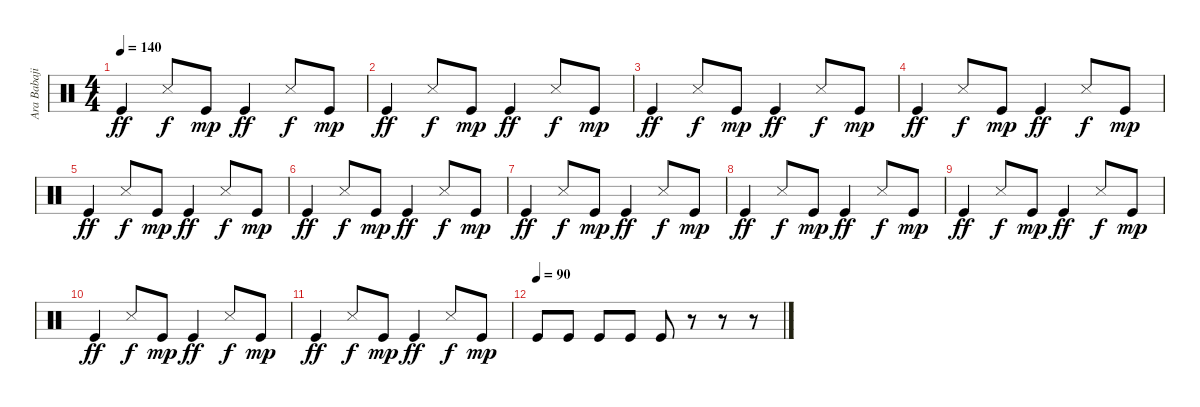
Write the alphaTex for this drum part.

\track ("Ara Babajian Drums" "Ara Babaji") {instrument percussion}
\staff {score}
\articulation defaults
\ts (4 4)
\tempo 140
\clef neutral
\ks c "Kick (hit)".4{dy ff} "Snare (side stick) 3".8{dy f} "Kick (hit)".8{dy mp} "Kick (hit)".4{dy ff} "Snare (side stick) 3".8{dy f} "Kick (hit)".8{dy mp}
|
"Kick (hit)".4{dy ff} "Snare (side stick) 3".8{dy f} "Kick (hit)".8{dy mp} "Kick (hit)".4{dy ff} "Snare (side stick) 3".8{dy f} "Kick (hit)".8{dy mp} |
"Kick (hit)".4{dy ff} "Snare (side stick) 3".8{dy f} "Kick (hit)".8{dy mp} "Kick (hit)".4{dy ff} "Snare (side stick) 3".8{dy f} "Kick (hit)".8{dy mp} |
"Kick (hit)".4{dy ff} "Snare (side stick) 3".8{dy f} "Kick (hit)".8{dy mp} "Kick (hit)".4{dy ff} "Snare (side stick) 3".8{dy f} "Kick (hit)".8{dy mp} |
"Kick (hit)".4{dy ff} "Snare (side stick) 3".8{dy f} "Kick (hit)".8{dy mp} "Kick (hit)".4{dy ff} "Snare (side stick) 3".8{dy f} "Kick (hit)".8{dy mp} |
"Kick (hit)".4{dy ff} "Snare (side stick) 3".8{dy f} "Kick (hit)".8{dy mp} "Kick (hit)".4{dy ff} "Snare (side stick) 3".8{dy f} "Kick (hit)".8{dy mp} |
"Kick (hit)".4{dy ff} "Snare (side stick) 3".8{dy f} "Kick (hit)".8{dy mp} "Kick (hit)".4{dy ff} "Snare (side stick) 3".8{dy f} "Kick (hit)".8{dy mp} |
"Kick (hit)".4{dy ff} "Snare (side stick) 3".8{dy f} "Kick (hit)".8{dy mp} "Kick (hit)".4{dy ff} "Snare (side stick) 3".8{dy f} "Kick (hit)".8{dy mp} |
"Kick (hit)".4{dy ff} "Snare (side stick) 3".8{dy f} "Kick (hit)".8{dy mp} "Kick (hit)".4{dy ff} "Snare (side stick) 3".8{dy f} "Kick (hit)".8{dy mp} |
"Kick (hit)".4{dy ff} "Snare (side stick) 3".8{dy f} "Kick (hit)".8{dy mp} "Kick (hit)".4{dy ff} "Snare (side stick) 3".8{dy f} "Kick (hit)".8{dy mp} |
"Kick (hit)".4{dy ff} "Snare (side stick) 3".8{dy f} "Kick (hit)".8{dy mp} "Kick (hit)".4{dy ff} "Snare (side stick) 3".8{dy f} "Kick (hit)".8{dy mp} |
\tempo (90)
"Kick (hit)".8 "Kick (hit)".8 "Kick (hit)".8 "Kick (hit)".8 "Kick (hit)".8 r.8 r.8 r.8
